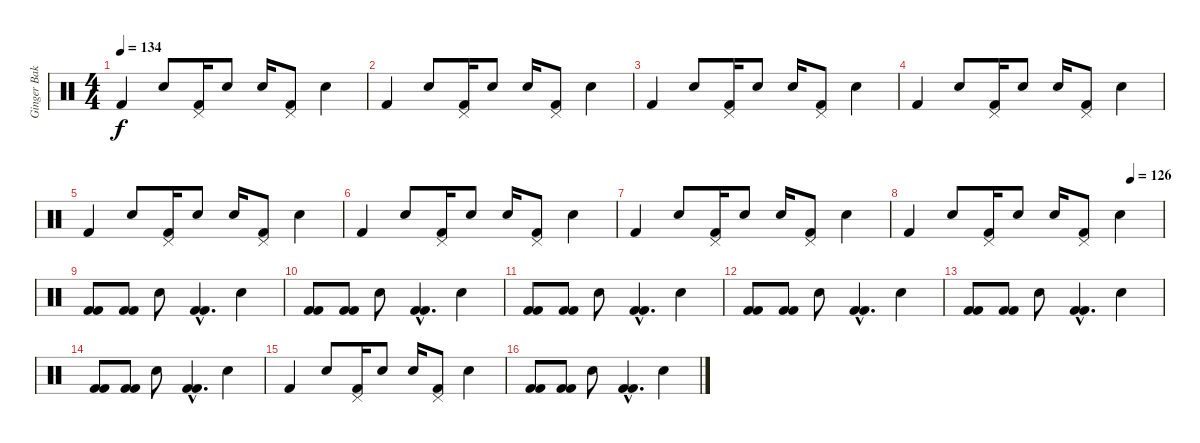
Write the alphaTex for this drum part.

\track ("Ginger Baker" "Ginger Bak") {instrument percussion}
\staff {score}
\articulation defaults
\ts (4 4)
\tempo 134
\clef neutral
\ks c "Kick (hit) 2".4{dy f} "Snare (hit) 2".8
("Pedal Hi-Hat (hit)" "Kick (hit) 2").16 "Snare (hit) 2".8 "Snare (hit) 2".16 ("Pedal Hi-Hat (hit)" "Kick (hit) 2").8 "Snare (hit) 2".4 |
"Kick (hit) 2".4 "Snare (hit) 2".8 ("Pedal Hi-Hat (hit)" "Kick (hit) 2").16 "Snare (hit) 2".8 "Snare (hit) 2".16 ("Pedal Hi-Hat (hit)" "Kick (hit) 2").8 "Snare (hit) 2".4 |
"Kick (hit) 2".4 "Snare (hit) 2".8 ("Pedal Hi-Hat (hit)" "Kick (hit) 2").16 "Snare (hit) 2".8 "Snare (hit) 2".16 ("Pedal Hi-Hat (hit)" "Kick (hit) 2").8 "Snare (hit) 2".4 |
"Kick (hit) 2".4 "Snare (hit) 2".8 ("Pedal Hi-Hat (hit)" "Kick (hit) 2").16 "Snare (hit) 2".8 "Snare (hit) 2".16 ("Pedal Hi-Hat (hit)" "Kick (hit) 2").8 "Snare (hit) 2".4 |
"Kick (hit) 2".4 "Snare (hit) 2".8 ("Pedal Hi-Hat (hit)" "Kick (hit) 2").16 "Snare (hit) 2".8 "Snare (hit) 2".16 ("Pedal Hi-Hat (hit)" "Kick (hit) 2").8 "Snare (hit) 2".4 |
"Kick (hit) 2".4 "Snare (hit) 2".8 ("Pedal Hi-Hat (hit)" "Kick (hit) 2").16 "Snare (hit) 2".8 "Snare (hit) 2".16 ("Pedal Hi-Hat (hit)" "Kick (hit) 2").8 "Snare (hit) 2".4 |
"Kick (hit) 2".4 "Snare (hit) 2".8 ("Pedal Hi-Hat (hit)" "Kick (hit) 2").16 "Snare (hit) 2".8 "Snare (hit) 2".16 ("Pedal Hi-Hat (hit)" "Kick (hit) 2").8 "Snare (hit) 2".4 |
\tempo (126 0.875)
"Kick (hit) 2".4 "Snare (hit) 2".8 ("Pedal Hi-Hat (hit)" "Kick (hit) 2").16 "Snare (hit) 2".8 "Snare (hit) 2".16 ("Pedal Hi-Hat (hit)" "Kick (hit) 2").8 "Snare (hit) 2".4 |
("Kick (hit) 2" "Kick (hit) 2").8 ("Kick (hit) 2" "Kick (hit) 2").8 "Snare (hit) 2".8 ("Kick (hit) 2"{hac} "Kick (hit) 2"{hac}).4{d} "Snare (hit) 2".4 |
("Kick (hit) 2" "Kick (hit) 2").8 ("Kick (hit) 2" "Kick (hit) 2").8 "Snare (hit) 2".8 ("Kick (hit) 2"{hac} "Kick (hit) 2"{hac}).4{d} "Snare (hit) 2".4 |
("Kick (hit) 2" "Kick (hit) 2").8 ("Kick (hit) 2" "Kick (hit) 2").8 "Snare (hit) 2".8 ("Kick (hit) 2"{hac} "Kick (hit) 2"{hac}).4{d} "Snare (hit) 2".4 |
("Kick (hit) 2" "Kick (hit) 2").8 ("Kick (hit) 2" "Kick (hit) 2").8 "Snare (hit) 2".8 ("Kick (hit) 2"{hac} "Kick (hit) 2"{hac}).4{d} "Snare (hit) 2".4 |
("Kick (hit) 2" "Kick (hit) 2").8 ("Kick (hit) 2" "Kick (hit) 2").8 "Snare (hit) 2".8 ("Kick (hit) 2"{hac} "Kick (hit) 2"{hac}).4{d} "Snare (hit) 2".4 |
("Kick (hit) 2" "Kick (hit) 2").8 ("Kick (hit) 2" "Kick (hit) 2").8 "Snare (hit) 2".8 ("Kick (hit) 2"{hac} "Kick (hit) 2"{hac}).4{d} "Snare (hit) 2".4 |
"Kick (hit) 2".4 "Snare (hit) 2".8 ("Pedal Hi-Hat (hit)" "Kick (hit) 2").16 "Snare (hit) 2".8 "Snare (hit) 2".16 ("Pedal Hi-Hat (hit)" "Kick (hit) 2").8 "Snare (hit) 2".4 |
("Kick (hit) 2" "Kick (hit) 2").8 ("Kick (hit) 2" "Kick (hit) 2").8 "Snare (hit) 2".8 ("Kick (hit) 2"{hac} "Kick (hit) 2"{hac}).4{d} "Snare (hit) 2".4
